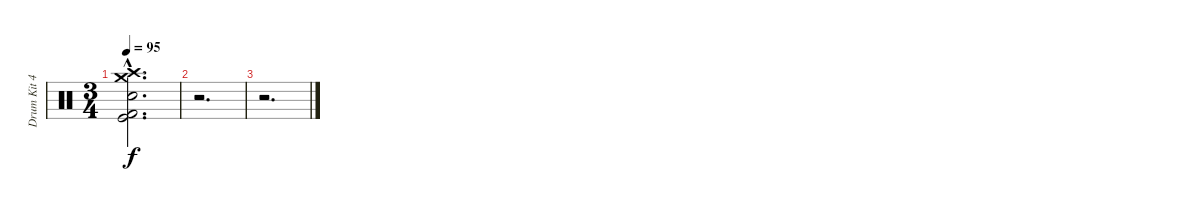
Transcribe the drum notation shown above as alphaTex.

\track ("Drum Kit 42" "Drum Kit 4") {instrument percussion}
\staff {score}
\articulation defaults
\ts (3 4)
\tempo 95
\clef neutral
\ks c
("Crash high (hit)"{hac} "Crash medium (hit)"{hac} "Kick (hit)"{hac} "Kick (hit) 2"{hac} "Snare (hit) 2"{hac}).2{d dy f} |
r.2{d} |
r.2{d}
